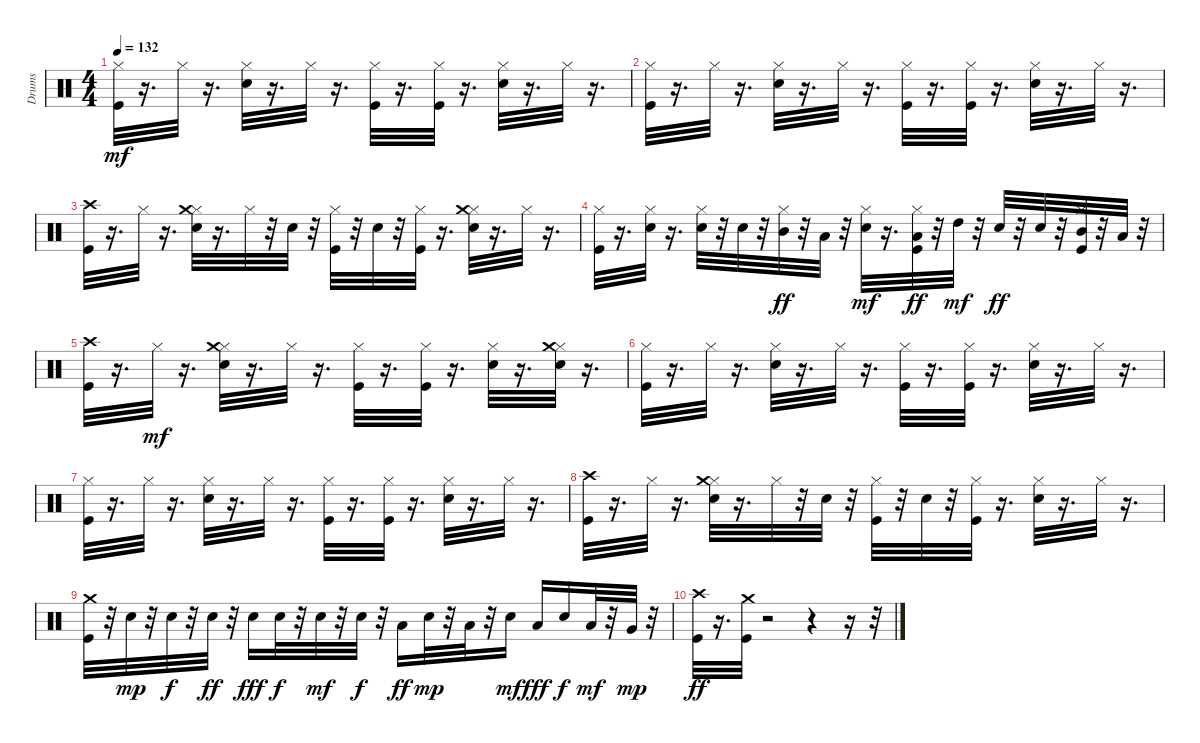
\track ("Drums" "Drums") {instrument percussion}
\staff {score}
\articulation defaults
\ts (4 4)
\tempo 132
\clef neutral
\ks c
("Kick (hit)" "Hi-Hat (closed)").32{dy mf} r.16{d} "Hi-Hat (closed)".32 r.16{d} ("Electric Snare (hit)" "Hi-Hat (closed)").32 r.16{d} "Hi-Hat (closed)".32 r.16{d} ("Kick (hit)" "Hi-Hat (closed)").32 r.16{d} ("Kick (hit)" "Hi-Hat (closed)").32 r.16{d} ("Electric Snare (hit)" "Hi-Hat (closed)").32 r.16{d} "Hi-Hat (closed)".32 r.16{d} |
("Kick (hit)" "Hi-Hat (closed)").32 r.16{d} "Hi-Hat (closed)".32 r.16{d} ("Electric Snare (hit)" "Hi-Hat (closed)").32 r.16{d} "Hi-Hat (closed)".32 r.16{d} ("Kick (hit)" "Hi-Hat (closed)").32 r.16{d} ("Kick (hit)" "Hi-Hat (closed)").32 r.16{d} ("Electric Snare (hit)" "Hi-Hat (closed)").32 r.16{d} "Hi-Hat (closed)".32 r.16{d} |
("Kick (hit)" "Crash high (hit)").32 r.16{d} "Hi-Hat (closed)".32 r.16{d} ("Electric Snare (hit)" "Hi-Hat (closed)" "Crash medium (hit)").32 r.16{d} "Hi-Hat (closed)".32 r.32 "Electric Snare (hit)".32 r.32 ("Kick (hit)" "Hi-Hat (closed)").32 r.32 "Electric Snare (hit)".32 r.32 ("Kick (hit)" "Hi-Hat (closed)").32 r.16{d} ("Electric Snare (hit)" "Hi-Hat (closed)" "Crash medium (hit)").32 r.16{d} "Hi-Hat (closed)".32 r.16{d} |
("Kick (hit)" "Hi-Hat (closed)").32 r.16{d} ("Electric Snare (hit)" "Hi-Hat (closed)").32 r.16{d} ("Electric Snare (hit)" "Hi-Hat (closed)").32 r.32 "Electric Snare (hit)".32 r.32 ("Hi-Hat (closed)" "Mid Tom (hit)").32{dy ff} r.32 "Low Tom (hit)".32 r.32 ("Electric Snare (hit)" "Hi-Hat (closed)").32{dy mf} r.16{d} ("Kick (hit)" "Hi-Hat (closed)" "Low Tom (hit)").32{dy ff} r.32 "High Tom (hit)".32{dy mf} r.32 "Electric Snare (hit)".32{dy ff} r.32 "Electric Snare (hit)".32 r.32 ("Kick (hit)" "Hi-Hat (closed)" "Mid Tom (hit)").32 r.32 "Low Tom (hit)".32 r.32 |
("Kick (hit)" "Crash high (hit)").32 r.16{d} "Hi-Hat (closed)".32{dy mf} r.16{d} ("Electric Snare (hit)" "Hi-Hat (closed)" "Crash medium (hit)").32 r.16{d} "Hi-Hat (closed)".32 r.16{d} ("Kick (hit)" "Hi-Hat (closed)").32 r.16{d} ("Kick (hit)" "Hi-Hat (closed)").32 r.16{d} ("Electric Snare (hit)" "Hi-Hat (closed)").32 r.16{d} ("Electric Snare (hit)" "Hi-Hat (closed)" "Crash medium (hit)").32 r.16{d} |
("Kick (hit)" "Hi-Hat (closed)").32 r.16{d} "Hi-Hat (closed)".32 r.16{d} ("Electric Snare (hit)" "Hi-Hat (closed)").32 r.16{d} "Hi-Hat (closed)".32 r.16{d} ("Kick (hit)" "Hi-Hat (closed)").32 r.16{d} ("Kick (hit)" "Hi-Hat (closed)").32 r.16{d} ("Electric Snare (hit)" "Hi-Hat (closed)").32 r.16{d} "Hi-Hat (closed)".32 r.16{d} |
("Kick (hit)" "Hi-Hat (closed)").32 r.16{d} "Hi-Hat (closed)".32 r.16{d} ("Electric Snare (hit)" "Hi-Hat (closed)").32 r.16{d} "Hi-Hat (closed)".32 r.16{d} ("Kick (hit)" "Hi-Hat (closed)").32 r.16{d} ("Kick (hit)" "Hi-Hat (closed)").32 r.16{d} ("Electric Snare (hit)" "Hi-Hat (closed)").32 r.16{d} "Hi-Hat (closed)".32 r.16{d} |
("Kick (hit)" "Crash high (hit)").32 r.16{d} "Hi-Hat (closed)".32 r.16{d} ("Electric Snare (hit)" "Hi-Hat (closed)" "Crash medium (hit)").32 r.16{d} "Hi-Hat (closed)".32 r.32 "Electric Snare (hit)".32 r.32 ("Kick (hit)" "Hi-Hat (closed)").32 r.32 "Electric Snare (hit)".32 r.32 ("Kick (hit)" "Hi-Hat (closed)").32 r.16{d} ("Electric Snare (hit)" "Hi-Hat (closed)").32 r.16{d} "Hi-Hat (closed)".32 r.16{d} |
("Kick (hit)" "Crash medium (hit)").32 r.32 "Electric Snare (hit)".32{dy mp} r.32 "Electric Snare (hit)".32{dy f} r.32 "Electric Snare (hit)".32{dy ff} r.32 "Electric Snare (hit)".16{dy fff} "Electric Snare (hit)".32{dy f} r.32 "Electric Snare (hit)".32{dy mf} r.32 "Electric Snare (hit)".32{dy f} r.32 "Low Tom (hit)".16{dy ff} "Electric Snare (hit)".32{dy mp} r.32 "Low Tom (hit)".32 r.32 "Electric Snare (hit)".16{dy mf} "Low Floor Tom (hit)".16{dy fff} "Electric Snare (hit)".16{dy f} "Low Floor Tom (hit)".32{dy mf} r.32 "Very Low Tom (hit)".32{dy mp} r.32 |
("Kick (hit)" "Crash high (hit)").32{dy ff} r.16{d} ("Kick (hit)" "Crash medium (hit)").32 r.2 r.4 r.16 r.32
